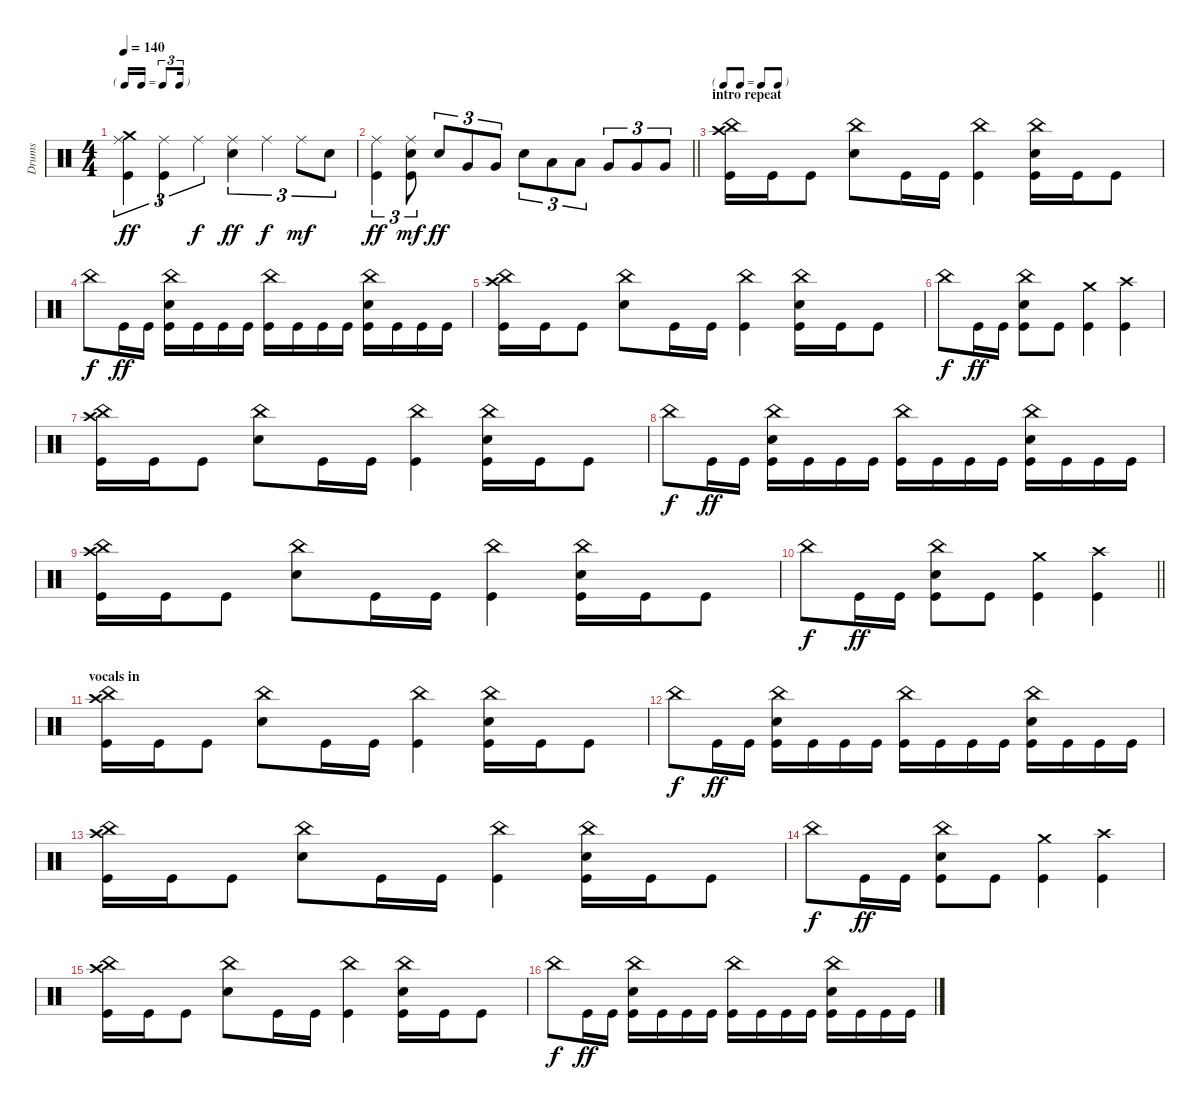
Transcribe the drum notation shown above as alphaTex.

\track ("Drums" "Drums") {instrument percussion}
\staff {score}
\articulation defaults
\ts (4 4)
\tf triplet16th
\tempo 140
\clef neutral
\ks c
("Crash medium (hit)" "Ride (middle)" "Kick (hit)").4{tu (3 2) dy ff} ("Ride (middle)" "Kick (hit)").4{tu (3 2)} "Ride (middle)".4{tu (3 2) dy f} ("Ride (middle)" "Electric Snare (hit)").4{tu (3 2) dy ff} "Ride (middle)".4{tu (3 2) dy f} "Ride (middle)".8{tu (3 2) dy mf} "Electric Snare (hit)".8{tu (3 2)} |
\barLineRight lightlight
("Ride (middle)" "Kick (hit)").4{tu (3 2) dy ff} ("Ride (middle)" "Electric Snare (hit)" "Kick (hit)").8{tu (3 2) dy mf} "Electric Snare (hit)".8{tu (3 2) dy ff} "Very Low Tom (hit)".8{tu (3 2)} "Very Low Tom (hit)".8{tu (3 2)} "Electric Snare (hit)".8{tu (3 2)} "Low Tom (hit)".8{tu (3 2)} "Low Tom (hit)".8{tu (3 2)} "Very Low Tom (hit)".8{tu (3 2)} "Very Low Tom (hit)".8{tu (3 2)} "Very Low Tom (hit)".8{tu (3 2)} |
\tf none
\section ("" "intro repeat")
("Crash high (hit)" "China (hit)" "Kick (hit)").16 "Kick (hit)".16 "Kick (hit)".8 ("China (hit)" "Electric Snare (hit)").8 "Kick (hit)".16 "Kick (hit)".16 ("China (hit)" "Kick (hit)").4 ("China (hit)" "Electric Snare (hit)" "Kick (hit)").16 "Kick (hit)".16 "Kick (hit)".8 |
"China (hit)".8{dy f} "Kick (hit)".16{dy ff} "Kick (hit)".16 ("China (hit)" "Electric Snare (hit)" "Kick (hit)").16 "Kick (hit)".16 "Kick (hit)".16 "Kick (hit)".16 ("China (hit)" "Kick (hit)").16 "Kick (hit)".16 "Kick (hit)".16 "Kick (hit)".16 ("China (hit)" "Electric Snare (hit)" "Kick (hit)").16 "Kick (hit)".16 "Kick (hit)".16 "Kick (hit)".16 |
("Crash high (hit)" "China (hit)" "Kick (hit)").16 "Kick (hit)".16 "Kick (hit)".8 ("China (hit)" "Electric Snare (hit)").8 "Kick (hit)".16 "Kick (hit)".16 ("China (hit)" "Kick (hit)").4 ("China (hit)" "Electric Snare (hit)" "Kick (hit)").16 "Kick (hit)".16 "Kick (hit)".8 |
"China (hit)".8{dy f} "Kick (hit)".16{dy ff} "Kick (hit)".16 ("China (hit)" "Electric Snare (hit)" "Kick (hit)").8 "Kick (hit)".8 ("Crash medium (hit)" "Kick (hit)").4 ("Crash high (hit)" "Kick (hit)").4 |
("Crash high (hit)" "China (hit)" "Kick (hit)").16 "Kick (hit)".16 "Kick (hit)".8 ("China (hit)" "Electric Snare (hit)").8 "Kick (hit)".16 "Kick (hit)".16 ("China (hit)" "Kick (hit)").4 ("China (hit)" "Electric Snare (hit)" "Kick (hit)").16 "Kick (hit)".16 "Kick (hit)".8 |
"China (hit)".8{dy f} "Kick (hit)".16{dy ff} "Kick (hit)".16 ("China (hit)" "Electric Snare (hit)" "Kick (hit)").16 "Kick (hit)".16 "Kick (hit)".16 "Kick (hit)".16 ("China (hit)" "Kick (hit)").16 "Kick (hit)".16 "Kick (hit)".16 "Kick (hit)".16 ("China (hit)" "Electric Snare (hit)" "Kick (hit)").16 "Kick (hit)".16 "Kick (hit)".16 "Kick (hit)".16 |
("Crash high (hit)" "China (hit)" "Kick (hit)").16 "Kick (hit)".16 "Kick (hit)".8 ("China (hit)" "Electric Snare (hit)").8 "Kick (hit)".16 "Kick (hit)".16 ("China (hit)" "Kick (hit)").4 ("China (hit)" "Electric Snare (hit)" "Kick (hit)").16 "Kick (hit)".16 "Kick (hit)".8 |
\barLineRight lightlight "China (hit)".8{dy f} "Kick (hit)".16{dy ff} "Kick (hit)".16
("China (hit)" "Electric Snare (hit)" "Kick (hit)").8 "Kick (hit)".8 ("Crash medium (hit)" "Kick (hit)").4 ("Crash high (hit)" "Kick (hit)").4 |
\section ("" "vocals in")
("Crash high (hit)" "China (hit)" "Kick (hit)").16 "Kick (hit)".16 "Kick (hit)".8 ("China (hit)" "Electric Snare (hit)").8 "Kick (hit)".16 "Kick (hit)".16 ("China (hit)" "Kick (hit)").4 ("China (hit)" "Electric Snare (hit)" "Kick (hit)").16 "Kick (hit)".16 "Kick (hit)".8 |
"China (hit)".8{dy f} "Kick (hit)".16{dy ff} "Kick (hit)".16 ("China (hit)" "Electric Snare (hit)" "Kick (hit)").16 "Kick (hit)".16 "Kick (hit)".16 "Kick (hit)".16 ("China (hit)" "Kick (hit)").16 "Kick (hit)".16 "Kick (hit)".16 "Kick (hit)".16 ("China (hit)" "Electric Snare (hit)" "Kick (hit)").16 "Kick (hit)".16 "Kick (hit)".16 "Kick (hit)".16 |
("Crash high (hit)" "China (hit)" "Kick (hit)").16 "Kick (hit)".16 "Kick (hit)".8 ("China (hit)" "Electric Snare (hit)").8 "Kick (hit)".16 "Kick (hit)".16 ("China (hit)" "Kick (hit)").4 ("China (hit)" "Electric Snare (hit)" "Kick (hit)").16 "Kick (hit)".16 "Kick (hit)".8 |
"China (hit)".8{dy f} "Kick (hit)".16{dy ff} "Kick (hit)".16 ("China (hit)" "Electric Snare (hit)" "Kick (hit)").8 "Kick (hit)".8 ("Crash medium (hit)" "Kick (hit)").4 ("Crash high (hit)" "Kick (hit)").4 |
("Crash high (hit)" "China (hit)" "Kick (hit)").16 "Kick (hit)".16 "Kick (hit)".8 ("China (hit)" "Electric Snare (hit)").8 "Kick (hit)".16 "Kick (hit)".16 ("China (hit)" "Kick (hit)").4 ("China (hit)" "Electric Snare (hit)" "Kick (hit)").16 "Kick (hit)".16 "Kick (hit)".8 |
"China (hit)".8{dy f} "Kick (hit)".16{dy ff} "Kick (hit)".16 ("China (hit)" "Electric Snare (hit)" "Kick (hit)").16 "Kick (hit)".16 "Kick (hit)".16 "Kick (hit)".16 ("China (hit)" "Kick (hit)").16 "Kick (hit)".16 "Kick (hit)".16 "Kick (hit)".16 ("China (hit)" "Electric Snare (hit)" "Kick (hit)").16 "Kick (hit)".16 "Kick (hit)".16 "Kick (hit)".16
